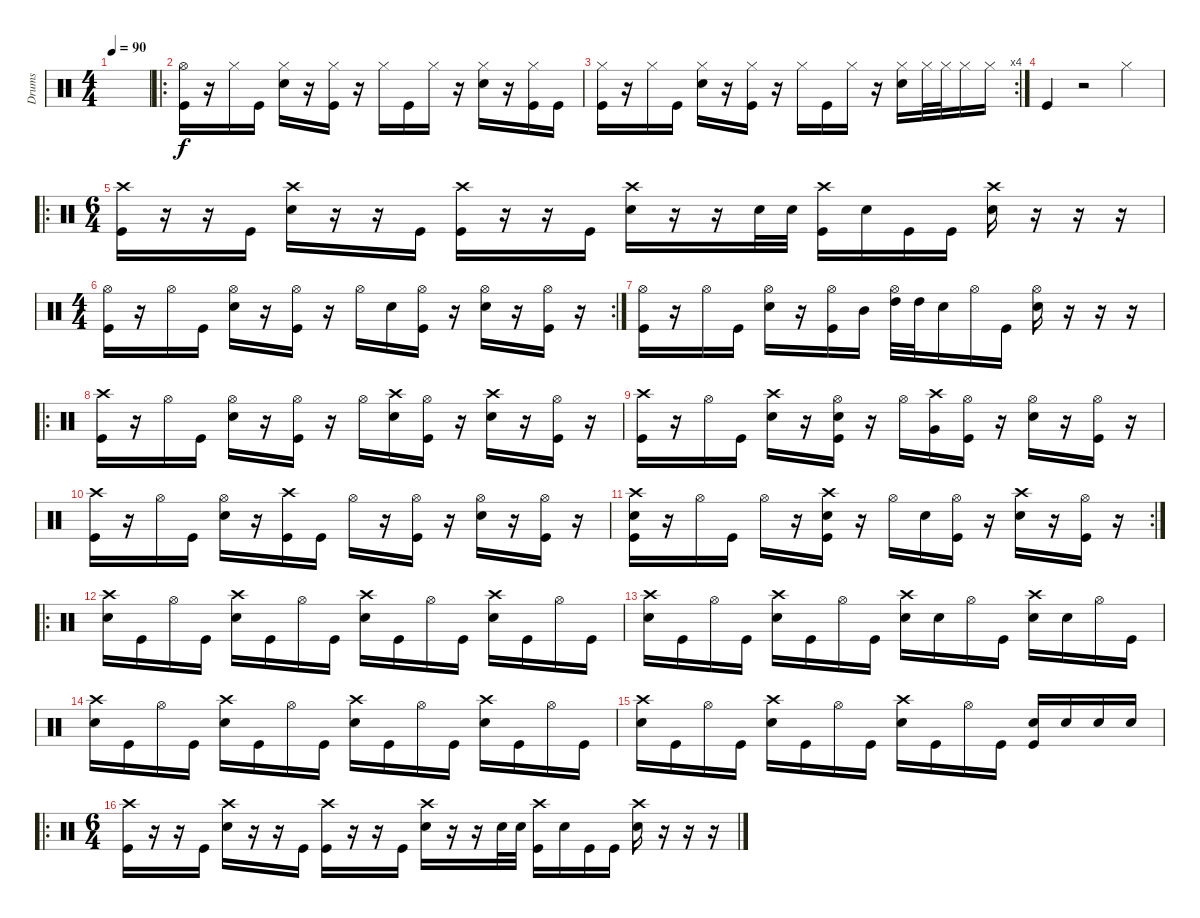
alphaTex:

\track ("Drums" "Drums") {instrument percussion}
\staff {score}
\articulation defaults
\ts (4 4)
\tempo 90
\clef neutral
\ks c
|
\ro
("Hi-Hat (open)" "Kick (hit)").16 r.16 "Hi-Hat (closed)".16 "Kick (hit)".16 ("Hi-Hat (closed)" "Snare (hit) 2").16 r.16 ("Hi-Hat (closed)" "Kick (hit)").16 r.16 "Hi-Hat (closed)".16 "Kick (hit)".16 "Hi-Hat (closed)".16 r.16 ("Hi-Hat (closed)" "Snare (hit) 2").16 r.16 ("Hi-Hat (closed)" "Kick (hit)").16 "Kick (hit)".16 |
\rc 4
("Hi-Hat (closed)" "Kick (hit)").16 r.16 "Hi-Hat (closed)".16 "Kick (hit)".16 ("Hi-Hat (closed)" "Snare (hit) 2").16 r.16 ("Hi-Hat (closed)" "Kick (hit)").16 r.16 "Hi-Hat (closed)".16 "Kick (hit)".16 "Hi-Hat (closed)".16 r.16 ("Hi-Hat (closed)" "Snare (hit) 2").16 "Hi-Hat (closed)".32 "Hi-Hat (closed)".32 "Hi-Hat (closed)".16 "Hi-Hat (closed)".16 |
"Kick (hit)".4 r.2 "Hi-Hat (closed)".4 |
\ro
\ts (6 4)
("Crash high (hit)" "Kick (hit)").16 r.16 r.16 "Kick (hit)".16 ("Crash high (hit)" "Snare (hit) 2").16 r.16 r.16 "Kick (hit)".16 ("Crash high (hit)" "Kick (hit)").16 r.16 r.16 "Kick (hit)".16 ("Crash high (hit)" "Snare (hit) 2").16 r.16 r.16 "Snare (hit) 2".32 "Snare (hit) 2".32 ("Crash high (hit)" "Kick (hit)").16 "Snare (hit) 2".16 "Kick (hit)".16 "Kick (hit)".16 ("Crash high (hit)" "Snare (hit) 2").16 r.16 r.16 r.16 |
\rc 2
\ts (4 4)
("Hi-Hat (open)" "Kick (hit)").16 r.16 "Hi-Hat (open)".16 "Kick (hit)".16 ("Hi-Hat (open)" "Snare (hit) 2").16 r.16 ("Hi-Hat (open)" "Kick (hit)").16 r.16 "Hi-Hat (open)".16 "Snare (hit) 2".16 ("Hi-Hat (open)" "Kick (hit)").16 r.16 ("Hi-Hat (open)" "Snare (hit) 2").16 r.16 ("Hi-Hat (open)" "Kick (hit)").16 r.16 |
("Hi-Hat (open)" "Kick (hit)").16 r.16 "Hi-Hat (open)".16 "Kick (hit)".16 ("Hi-Hat (open)" "Snare (hit) 2").16 r.16 ("Hi-Hat (open)" "Kick (hit)").16 "Mid Tom (hit)".16 ("Hi-Hat (open)" "High Tom (hit)").32 "High Tom (hit)".32 "Snare (hit) 2".16 "Hi-Hat (open)".16 "Kick (hit)".16 ("Hi-Hat (open)" "Snare (hit) 2").16 r.16 r.16 r.16 |
\ro
("Crash high (hit)" "Kick (hit)").16 r.16 "Hi-Hat (open)".16 "Kick (hit)".16 ("Hi-Hat (open)" "Snare (hit) 2").16 r.16 ("Hi-Hat (open)" "Kick (hit)").16 r.16 "Hi-Hat (open)".16 ("Crash high (hit)" "Snare (hit) 2").16 ("Hi-Hat (open)" "Kick (hit)").16 r.16 ("Crash high (hit)" "Snare (hit) 2").16 r.16 ("Hi-Hat (open)" "Kick (hit)").16 r.16 |
("Crash high (hit)" "Kick (hit)").16 r.16 "Hi-Hat (open)".16 "Kick (hit)".16 ("Crash high (hit)" "Snare (hit) 2").16 r.16 ("Hi-Hat (open)" "Snare (hit) 2" "Kick (hit)").16 r.16 "Hi-Hat (open)".16 ("Crash high (hit)" "Very Low Tom (hit)").16 ("Hi-Hat (open)" "Kick (hit)").16 r.16 ("Hi-Hat (open)" "Snare (hit) 2").16 r.16 ("Hi-Hat (open)" "Kick (hit)").16 r.16 |
("Crash high (hit)" "Kick (hit)").16 r.16 "Hi-Hat (open)".16 "Kick (hit)".16 ("Hi-Hat (open)" "Snare (hit) 2").16 r.16 ("Crash high (hit)" "Kick (hit)").16 "Kick (hit)".16 "Hi-Hat (open)".16 r.16 ("Hi-Hat (open)" "Kick (hit)").16 r.16 ("Hi-Hat (open)" "Snare (hit) 2").16 r.16 ("Hi-Hat (open)" "Kick (hit)").16 r.16 |
\rc 2
("Crash high (hit)" "Snare (hit) 2" "Kick (hit)").16 r.16 "Hi-Hat (open)".16 "Kick (hit)".16 "Hi-Hat (open)".16 r.16 ("Crash high (hit)" "Snare (hit) 2" "Kick (hit)").16 r.16 "Hi-Hat (open)".16 "Snare (hit) 2".16 ("Hi-Hat (open)" "Kick (hit)").16 r.16 ("Crash high (hit)" "Snare (hit) 2").16 r.16 ("Hi-Hat (open)" "Kick (hit)").16 r.16 |
\ro
("Crash high (hit)" "Snare (hit) 2").16 "Kick (hit)".16 "Hi-Hat (open)".16 "Kick (hit)".16 ("Crash high (hit)" "Snare (hit) 2").16 "Kick (hit)".16 "Hi-Hat (open)".16 "Kick (hit)".16 ("Crash high (hit)" "Snare (hit) 2").16 "Kick (hit)".16 "Hi-Hat (open)".16 "Kick (hit)".16 ("Crash high (hit)" "Snare (hit) 2").16 "Kick (hit)".16 "Hi-Hat (open)".16 "Kick (hit)".16 |
("Crash high (hit)" "Snare (hit) 2").16 "Kick (hit)".16 "Hi-Hat (open)".16 "Kick (hit)".16 ("Crash high (hit)" "Snare (hit) 2").16 "Kick (hit)".16 "Hi-Hat (open)".16 "Kick (hit)".16 ("Crash high (hit)" "Snare (hit) 2").16 "Snare (hit) 2".16 "Hi-Hat (open)".16 "Kick (hit)".16 ("Crash high (hit)" "Snare (hit) 2").16 "Snare (hit) 2".16 "Hi-Hat (open)".16 "Kick (hit)".16 |
("Crash high (hit)" "Snare (hit) 2").16 "Kick (hit)".16 "Hi-Hat (open)".16 "Kick (hit)".16 ("Crash high (hit)" "Snare (hit) 2").16 "Kick (hit)".16 "Hi-Hat (open)".16 "Kick (hit)".16 ("Crash high (hit)" "Snare (hit) 2").16 "Kick (hit)".16 "Hi-Hat (open)".16 "Kick (hit)".16 ("Crash high (hit)" "Snare (hit) 2").16 "Kick (hit)".16 "Hi-Hat (open)".16 "Kick (hit)".16 |
("Crash high (hit)" "Snare (hit) 2").16 "Kick (hit)".16 "Hi-Hat (open)".16 "Kick (hit)".16 ("Crash high (hit)" "Snare (hit) 2").16 "Kick (hit)".16 "Hi-Hat (open)".16 "Kick (hit)".16 ("Crash high (hit)" "Snare (hit) 2").16 "Kick (hit)".16 "Hi-Hat (open)".16 "Kick (hit)".16 ("Snare (hit) 2" "Kick (hit)").16 "Snare (hit) 2".16 "Snare (hit) 2".16 "Snare (hit) 2".16 |
\ro
\ts (6 4)
("Crash high (hit)" "Kick (hit)").16 r.16 r.16 "Kick (hit)".16 ("Crash high (hit)" "Snare (hit) 2").16 r.16 r.16 "Kick (hit)".16 ("Crash high (hit)" "Kick (hit)").16 r.16 r.16 "Kick (hit)".16 ("Crash high (hit)" "Snare (hit) 2").16 r.16 r.16 "Snare (hit) 2".32 "Snare (hit) 2".32 ("Crash high (hit)" "Kick (hit)").16 "Snare (hit) 2".16 "Kick (hit)".16 "Kick (hit)".16 ("Crash high (hit)" "Snare (hit) 2").16 r.16 r.16 r.16
